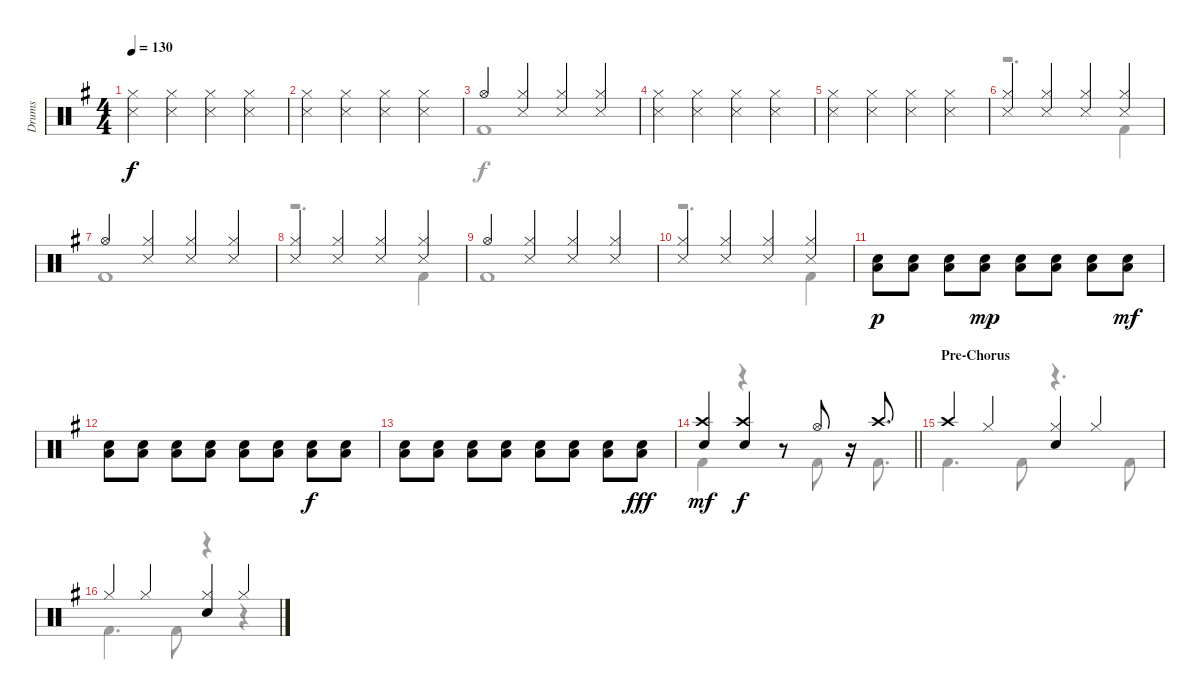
\track ("Drums" "Drums") {instrument percussion}
\staff {score}
\articulation defaults
\voice
\ts (4 4)
\tempo 130
\clef neutral
\ks g
("Hi-Hat (closed)" "Snare (side stick) 3").4{dy f} ("Hi-Hat (closed)" "Snare (side stick) 3").4 ("Hi-Hat (closed)" "Snare (side stick) 3").4 ("Hi-Hat (closed)" "Snare (side stick) 3").4 |
("Hi-Hat (closed)" "Snare (side stick) 3").4 ("Hi-Hat (closed)" "Snare (side stick) 3").4 ("Hi-Hat (closed)" "Snare (side stick) 3").4 ("Hi-Hat (closed)" "Snare (side stick) 3").4 |
"Hi-Hat (open)".4 ("Hi-Hat (closed)" "Snare (side stick) 3").4 ("Hi-Hat (closed)" "Snare (side stick) 3").4 ("Hi-Hat (closed)" "Snare (side stick) 3").4 |
("Hi-Hat (closed)" "Snare (side stick) 3").4 ("Hi-Hat (closed)" "Snare (side stick) 3").4 ("Hi-Hat (closed)" "Snare (side stick) 3").4 ("Hi-Hat (closed)" "Snare (side stick) 3").4 |
("Hi-Hat (closed)" "Snare (side stick) 3").4 ("Hi-Hat (closed)" "Snare (side stick) 3").4 ("Hi-Hat (closed)" "Snare (side stick) 3").4 ("Hi-Hat (closed)" "Snare (side stick) 3").4 |
("Hi-Hat (closed)" "Snare (side stick) 3").4 ("Hi-Hat (closed)" "Snare (side stick) 3").4 ("Hi-Hat (closed)" "Snare (side stick) 3").4 ("Hi-Hat (closed)" "Snare (side stick) 3").4 |
"Hi-Hat (open)".4 ("Hi-Hat (closed)" "Snare (side stick) 3").4 ("Hi-Hat (closed)" "Snare (side stick) 3").4 ("Hi-Hat (closed)" "Snare (side stick) 3").4 |
("Hi-Hat (closed)" "Snare (side stick) 3").4 ("Hi-Hat (closed)" "Snare (side stick) 3").4 ("Hi-Hat (closed)" "Snare (side stick) 3").4 ("Hi-Hat (closed)" "Snare (side stick) 3").4 |
"Hi-Hat (open)".4 ("Hi-Hat (closed)" "Snare (side stick) 3").4 ("Hi-Hat (closed)" "Snare (side stick) 3").4 ("Hi-Hat (closed)" "Snare (side stick) 3").4 |
("Hi-Hat (closed)" "Snare (side stick) 3").4 ("Hi-Hat (closed)" "Snare (side stick) 3").4 ("Hi-Hat (closed)" "Snare (side stick) 3").4 ("Hi-Hat (closed)" "Snare (side stick) 3").4 |
("Snare (hit) 2" "Low Tom (hit)").8{dy p} ("Snare (hit) 2" "Low Tom (hit)").8 ("Snare (hit) 2" "Low Tom (hit)").8 ("Snare (hit) 2" "Low Tom (hit)").8{dy mp} ("Snare (hit) 2" "Low Tom (hit)").8 ("Snare (hit) 2" "Low Tom (hit)").8 ("Snare (hit) 2" "Low Tom (hit)").8 ("Snare (hit) 2" "Low Tom (hit)").8{dy mf} |
("Snare (hit) 2" "Low Tom (hit)").8 ("Snare (hit) 2" "Low Tom (hit)").8 ("Snare (hit) 2" "Low Tom (hit)").8 ("Snare (hit) 2" "Low Tom (hit)").8 ("Snare (hit) 2" "Low Tom (hit)").8 ("Snare (hit) 2" "Low Tom (hit)").8 ("Snare (hit) 2" "Low Tom (hit)").8{dy f} ("Snare (hit) 2" "Low Tom (hit)").8 |
("Snare (hit) 2" "Low Tom (hit)").8 ("Snare (hit) 2" "Low Tom (hit)").8 ("Snare (hit) 2" "Low Tom (hit)").8 ("Snare (hit) 2" "Low Tom (hit)").8 ("Snare (hit) 2" "Low Tom (hit)").8 ("Snare (hit) 2" "Low Tom (hit)").8 ("Snare (hit) 2" "Low Tom (hit)").8 ("Snare (hit) 2" "Low Tom (hit)").8{dy fff} |
\barLineRight lightlight
("Crash high (hit)" "Electric Snare (hit)").4{dy mf} ("Crash high (hit)" "Electric Snare (hit)").4{dy f} r.8 "Hi-Hat (open)".8 r.16 "Crash high (hit)".8{d} |
\section ("" "Pre-Chorus")
"Crash high (hit)".4 "Hi-Hat (closed)".4 ("Hi-Hat (closed)" "Electric Snare (hit)").4 "Hi-Hat (closed)".4 |
"Hi-Hat (closed)".4 "Hi-Hat (closed)".4 ("Hi-Hat (closed)" "Electric Snare (hit)").4 "Hi-Hat (closed)".4
\voice
\clef neutral
\ottava regular
\simile none
\ks g
|
|
"Kick (hit) 2".1 |
|
|
r.2{d} "Kick (hit) 2".4 |
"Kick (hit) 2".1 |
r.2{d} "Kick (hit) 2".4 |
"Kick (hit) 2".1 |
r.2{d} "Kick (hit) 2".4 |
|
|
|
\barLineRight lightlight "Kick (hit) 2".4
r.4 r.8 "Kick (hit) 2".8 r.16 "Kick (hit) 2".8{d} |
"Kick (hit) 2".4{d} "Kick (hit) 2".8 r.4{d} "Kick (hit) 2".8 |
"Kick (hit) 2".4{d} "Kick (hit) 2".8 r.4 r.4
